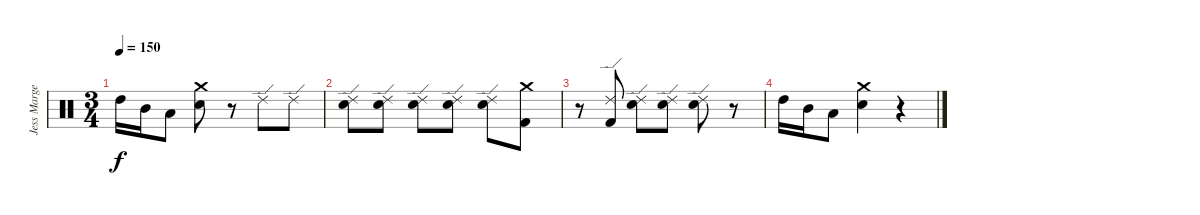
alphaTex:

\track ("Jess Margera" "Jess Marge") {instrument percussion}
\staff {score}
\articulation defaults
\ts (3 4)
\tempo 150
\clef neutral
\ks c "High Tom (hit)".16{dy f} "Mid Tom (hit)".16 "Low Tom (hit)".8
("Crash medium (hit)" "Electric Snare (hit)").8 r.8 "Ride (edge) 2".8 "Ride (edge) 2".8 |
("Ride (edge) 2" "Electric Snare (hit)").8 ("Ride (edge) 2" "Electric Snare (hit)").8 ("Ride (edge) 2" "Electric Snare (hit)").8 ("Ride (edge) 2" "Electric Snare (hit)").8 ("Ride (edge) 2" "Electric Snare (hit)").8 ("Crash medium (hit)" "Kick (hit) 2").8 |
r.8 ("Ride (edge) 2" "Kick (hit) 2").8 ("Ride (edge) 2" "Electric Snare (hit)").8 ("Ride (edge) 2" "Electric Snare (hit)").8 ("Ride (edge) 2" "Electric Snare (hit)").8 r.8 |
"High Tom (hit)".16 "Mid Tom (hit)".16 "Low Tom (hit)".8 ("Crash medium (hit)" "Electric Snare (hit)").4 r.4
